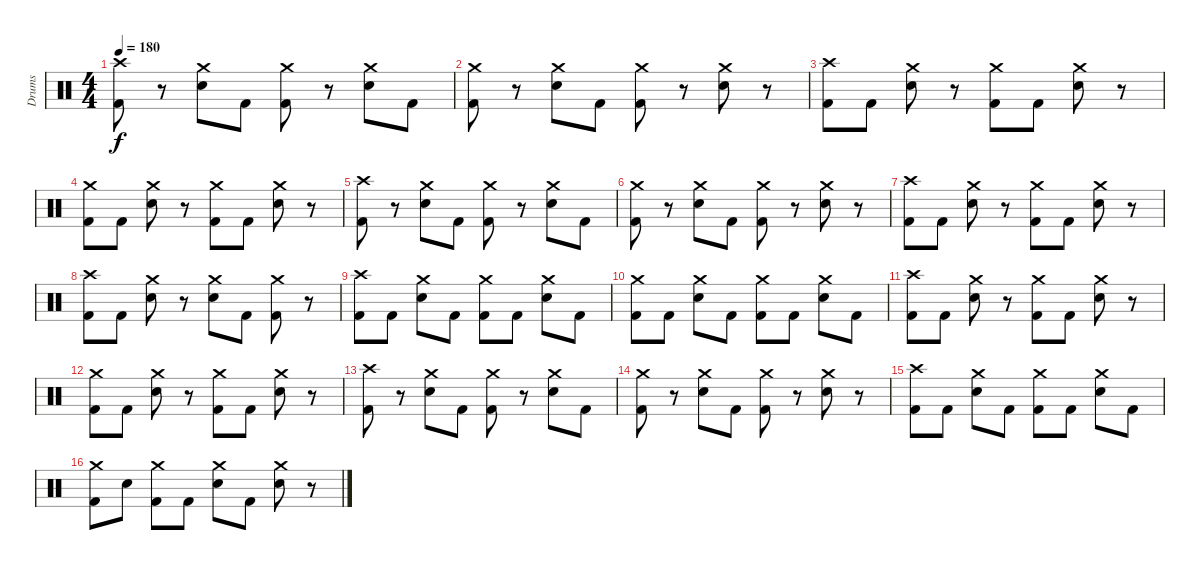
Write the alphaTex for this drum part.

\track ("Drums" "Drums") {instrument percussion}
\staff {score}
\articulation defaults
\ts (4 4)
\tempo 180
\clef neutral
\ks c
("Crash high (hit)" "Kick (hit) 2").8{dy f} r.8 ("Crash medium (hit)" "Electric Snare (hit)").8 "Kick (hit) 2".8 ("Crash medium (hit)" "Kick (hit) 2").8 r.8 ("Crash medium (hit)" "Electric Snare (hit)").8 "Kick (hit) 2".8 |
("Crash medium (hit)" "Kick (hit) 2").8 r.8 ("Crash medium (hit)" "Electric Snare (hit)").8 "Kick (hit) 2".8 ("Crash medium (hit)" "Kick (hit) 2").8 r.8 ("Crash medium (hit)" "Electric Snare (hit)").8 r.8 |
("Crash high (hit)" "Kick (hit) 2").8 "Kick (hit) 2".8 ("Crash medium (hit)" "Electric Snare (hit)").8 r.8 ("Crash medium (hit)" "Kick (hit) 2").8 "Kick (hit) 2".8 ("Crash medium (hit)" "Electric Snare (hit)").8 r.8 |
("Crash medium (hit)" "Kick (hit) 2").8 "Kick (hit) 2".8 ("Crash medium (hit)" "Electric Snare (hit)").8 r.8 ("Crash medium (hit)" "Kick (hit) 2").8 "Kick (hit) 2".8 ("Crash medium (hit)" "Electric Snare (hit)").8 r.8 |
("Crash high (hit)" "Kick (hit) 2").8 r.8 ("Crash medium (hit)" "Electric Snare (hit)").8 "Kick (hit) 2".8 ("Crash medium (hit)" "Kick (hit) 2").8 r.8 ("Crash medium (hit)" "Electric Snare (hit)").8 "Kick (hit) 2".8 |
("Crash medium (hit)" "Kick (hit) 2").8 r.8 ("Crash medium (hit)" "Electric Snare (hit)").8 "Kick (hit) 2".8 ("Crash medium (hit)" "Kick (hit) 2").8 r.8 ("Crash medium (hit)" "Electric Snare (hit)").8 r.8 |
("Crash high (hit)" "Kick (hit) 2").8 "Kick (hit) 2".8 ("Crash medium (hit)" "Electric Snare (hit)").8 r.8 ("Crash medium (hit)" "Kick (hit) 2").8 "Kick (hit) 2".8 ("Crash medium (hit)" "Electric Snare (hit)").8 r.8 |
("Crash high (hit)" "Kick (hit) 2").8 "Kick (hit) 2".8 ("Crash medium (hit)" "Electric Snare (hit)").8 r.8 ("Crash medium (hit)" "Electric Snare (hit)").8 "Kick (hit) 2".8 ("Crash medium (hit)" "Kick (hit) 2").8 r.8 |
("Crash high (hit)" "Kick (hit) 2").8 "Kick (hit) 2".8 ("Crash medium (hit)" "Electric Snare (hit)").8 "Kick (hit) 2".8 ("Crash medium (hit)" "Kick (hit) 2").8 "Kick (hit) 2".8 ("Crash medium (hit)" "Electric Snare (hit)").8 "Kick (hit) 2".8 |
("Crash medium (hit)" "Kick (hit) 2").8 "Kick (hit) 2".8 ("Crash medium (hit)" "Electric Snare (hit)").8 "Kick (hit) 2".8 ("Crash medium (hit)" "Kick (hit) 2").8 "Kick (hit) 2".8 ("Crash medium (hit)" "Electric Snare (hit)").8 "Kick (hit) 2".8 |
("Crash high (hit)" "Kick (hit) 2").8 "Kick (hit) 2".8 ("Crash medium (hit)" "Electric Snare (hit)").8 r.8 ("Crash medium (hit)" "Kick (hit) 2").8 "Kick (hit) 2".8 ("Crash medium (hit)" "Electric Snare (hit)").8 r.8 |
("Crash medium (hit)" "Kick (hit) 2").8 "Kick (hit) 2".8 ("Crash medium (hit)" "Electric Snare (hit)").8 r.8 ("Crash medium (hit)" "Kick (hit) 2").8 "Kick (hit) 2".8 ("Crash medium (hit)" "Electric Snare (hit)").8 r.8 |
("Crash high (hit)" "Kick (hit) 2").8 r.8 ("Crash medium (hit)" "Electric Snare (hit)").8 "Kick (hit) 2".8 ("Crash medium (hit)" "Kick (hit) 2").8 r.8 ("Crash medium (hit)" "Electric Snare (hit)").8 "Kick (hit) 2".8 |
("Crash medium (hit)" "Kick (hit) 2").8 r.8 ("Crash medium (hit)" "Electric Snare (hit)").8 "Kick (hit) 2".8 ("Crash medium (hit)" "Kick (hit) 2").8 r.8 ("Crash medium (hit)" "Electric Snare (hit)").8 r.8 |
("Crash high (hit)" "Kick (hit) 2").8 "Kick (hit) 2".8 ("Crash medium (hit)" "Electric Snare (hit)").8 "Kick (hit) 2".8 ("Crash medium (hit)" "Kick (hit) 2").8 "Kick (hit) 2".8 ("Crash medium (hit)" "Electric Snare (hit)").8 "Kick (hit) 2".8 |
("Crash medium (hit)" "Kick (hit) 2").8 "Electric Snare (hit)".8 ("Crash medium (hit)" "Kick (hit) 2").8 "Kick (hit) 2".8 ("Crash medium (hit)" "Electric Snare (hit)").8 "Kick (hit) 2".8 ("Crash medium (hit)" "Electric Snare (hit)").8 r.8
